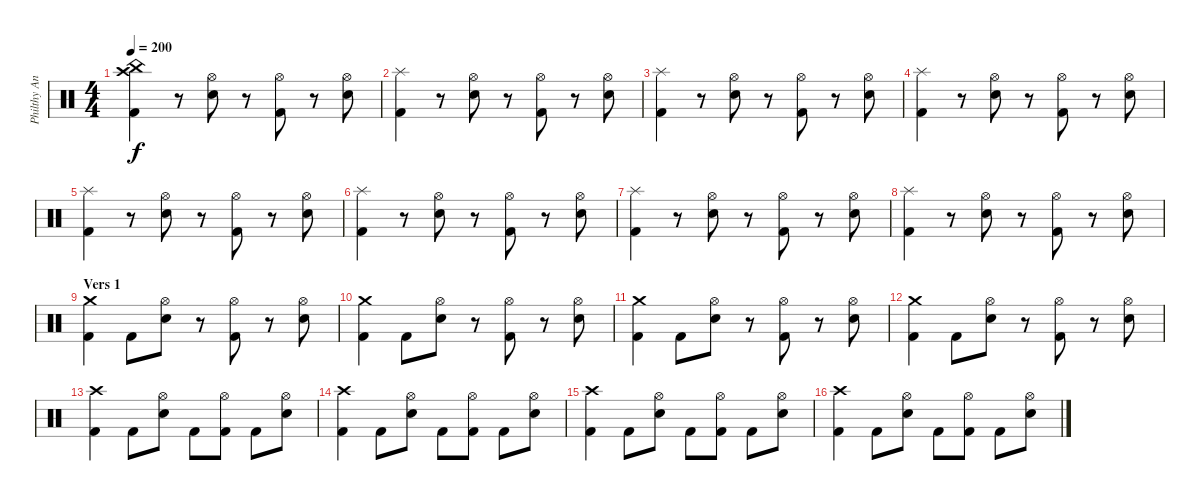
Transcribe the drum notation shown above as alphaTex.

\track ("Philthy Animal Taylor" "Philthy An") {instrument percussion}
\staff {score}
\articulation defaults
\ts (4 4)
\tempo 200
\clef neutral
\ks c
("Crash high (hit)" "China (hit)" "Kick (hit) 2").4{dy f} r.8 ("Hi-Hat (open)" "Electric Snare (hit)").8 r.8 ("Hi-Hat (open)" "Kick (hit) 2").8 r.8 ("Hi-Hat (open)" "Electric Snare (hit)").8 |
("Splash (hit)" "Kick (hit) 2").4 r.8 ("Hi-Hat (open)" "Electric Snare (hit)").8 r.8 ("Hi-Hat (open)" "Kick (hit) 2").8 r.8 ("Hi-Hat (open)" "Electric Snare (hit)").8 |
("Splash (hit)" "Kick (hit) 2").4 r.8 ("Hi-Hat (open)" "Electric Snare (hit)").8 r.8 ("Hi-Hat (open)" "Kick (hit) 2").8 r.8 ("Hi-Hat (open)" "Electric Snare (hit)").8 |
("Splash (hit)" "Kick (hit) 2").4 r.8 ("Hi-Hat (open)" "Electric Snare (hit)").8 r.8 ("Hi-Hat (open)" "Kick (hit) 2").8 r.8 ("Hi-Hat (open)" "Electric Snare (hit)").8 |
("Splash (hit)" "Kick (hit) 2").4 r.8 ("Hi-Hat (open)" "Electric Snare (hit)").8 r.8 ("Hi-Hat (open)" "Kick (hit) 2").8 r.8 ("Hi-Hat (open)" "Electric Snare (hit)").8 |
("Splash (hit)" "Kick (hit) 2").4 r.8 ("Hi-Hat (open)" "Electric Snare (hit)").8 r.8 ("Hi-Hat (open)" "Kick (hit) 2").8 r.8 ("Hi-Hat (open)" "Electric Snare (hit)").8 |
("Splash (hit)" "Kick (hit) 2").4 r.8 ("Hi-Hat (open)" "Electric Snare (hit)").8 r.8 ("Hi-Hat (open)" "Kick (hit) 2").8 r.8 ("Hi-Hat (open)" "Electric Snare (hit)").8 |
("Splash (hit)" "Kick (hit) 2").4 r.8 ("Hi-Hat (open)" "Electric Snare (hit)").8 r.8 ("Hi-Hat (open)" "Kick (hit) 2").8 r.8 ("Hi-Hat (open)" "Electric Snare (hit)").8 |
\section ("" "Vers 1")
("Crash medium (hit)" "Kick (hit) 2").4 "Kick (hit) 2".8 ("Hi-Hat (open)" "Electric Snare (hit)").8 r.8 ("Hi-Hat (open)" "Kick (hit) 2").8 r.8 ("Hi-Hat (open)" "Electric Snare (hit)").8 |
("Crash medium (hit)" "Kick (hit) 2").4 "Kick (hit) 2".8 ("Hi-Hat (open)" "Electric Snare (hit)").8 r.8 ("Hi-Hat (open)" "Kick (hit) 2").8 r.8 ("Hi-Hat (open)" "Electric Snare (hit)").8 |
("Crash medium (hit)" "Kick (hit) 2").4 "Kick (hit) 2".8 ("Hi-Hat (open)" "Electric Snare (hit)").8 r.8 ("Hi-Hat (open)" "Kick (hit) 2").8 r.8 ("Hi-Hat (open)" "Electric Snare (hit)").8 |
("Crash medium (hit)" "Kick (hit) 2").4 "Kick (hit) 2".8 ("Hi-Hat (open)" "Electric Snare (hit)").8 r.8 ("Hi-Hat (open)" "Kick (hit) 2").8 r.8 ("Hi-Hat (open)" "Electric Snare (hit)").8 |
("Crash high (hit)" "Kick (hit) 2").4 "Kick (hit) 2".8 ("Hi-Hat (open)" "Electric Snare (hit)").8 "Kick (hit) 2".8 ("Hi-Hat (open)" "Kick (hit) 2").8 "Kick (hit) 2".8 ("Hi-Hat (open)" "Electric Snare (hit)").8 |
("Crash high (hit)" "Kick (hit) 2").4 "Kick (hit) 2".8 ("Hi-Hat (open)" "Electric Snare (hit)").8 "Kick (hit) 2".8 ("Hi-Hat (open)" "Kick (hit) 2").8 "Kick (hit) 2".8 ("Hi-Hat (open)" "Electric Snare (hit)").8 |
("Crash high (hit)" "Kick (hit) 2").4 "Kick (hit) 2".8 ("Hi-Hat (open)" "Electric Snare (hit)").8 "Kick (hit) 2".8 ("Hi-Hat (open)" "Kick (hit) 2").8 "Kick (hit) 2".8 ("Hi-Hat (open)" "Electric Snare (hit)").8 |
("Crash high (hit)" "Kick (hit) 2").4 "Kick (hit) 2".8 ("Hi-Hat (open)" "Electric Snare (hit)").8 "Kick (hit) 2".8 ("Hi-Hat (open)" "Kick (hit) 2").8 "Kick (hit) 2".8 ("Hi-Hat (open)" "Electric Snare (hit)").8
